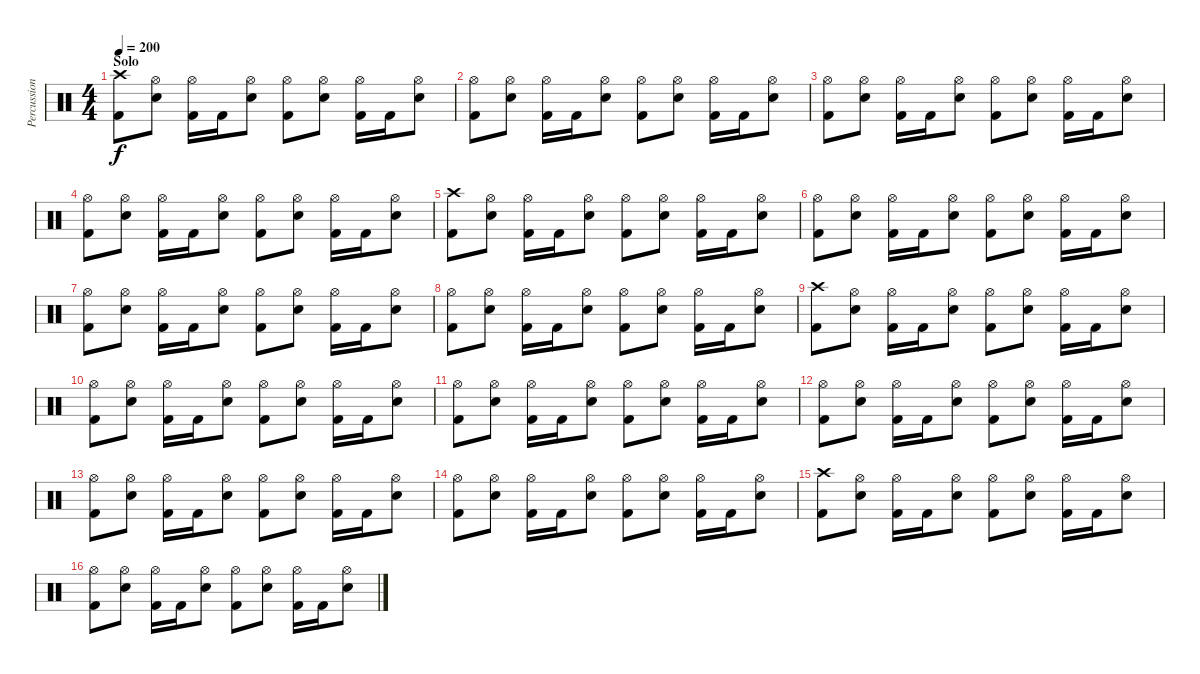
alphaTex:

\track ("Percussion" "Percussion") {instrument percussion}
\staff {score}
\articulation defaults
\ts (4 4)
\section ("" "Solo")
\tempo 200
\clef neutral
\ks c
("Crash high (hit)" "Kick (hit) 2").8{dy f} ("Hi-Hat (open)" "Electric Snare (hit)").8 ("Hi-Hat (open)" "Kick (hit) 2").16 "Kick (hit) 2".16 ("Hi-Hat (open)" "Electric Snare (hit)").8 ("Hi-Hat (open)" "Kick (hit) 2").8 ("Hi-Hat (open)" "Electric Snare (hit)").8 ("Hi-Hat (open)" "Kick (hit) 2").16 "Kick (hit) 2".16 ("Hi-Hat (open)" "Electric Snare (hit)").8 |
("Hi-Hat (open)" "Kick (hit) 2").8 ("Hi-Hat (open)" "Electric Snare (hit)").8 ("Hi-Hat (open)" "Kick (hit) 2").16 "Kick (hit) 2".16 ("Hi-Hat (open)" "Electric Snare (hit)").8 ("Hi-Hat (open)" "Kick (hit) 2").8 ("Hi-Hat (open)" "Electric Snare (hit)").8 ("Hi-Hat (open)" "Kick (hit) 2").16 "Kick (hit) 2".16 ("Hi-Hat (open)" "Electric Snare (hit)").8 |
("Hi-Hat (open)" "Kick (hit) 2").8 ("Hi-Hat (open)" "Electric Snare (hit)").8 ("Hi-Hat (open)" "Kick (hit) 2").16 "Kick (hit) 2".16 ("Hi-Hat (open)" "Electric Snare (hit)").8 ("Hi-Hat (open)" "Kick (hit) 2").8 ("Hi-Hat (open)" "Electric Snare (hit)").8 ("Hi-Hat (open)" "Kick (hit) 2").16 "Kick (hit) 2".16 ("Hi-Hat (open)" "Electric Snare (hit)").8 |
("Hi-Hat (open)" "Kick (hit) 2").8 ("Hi-Hat (open)" "Electric Snare (hit)").8 ("Hi-Hat (open)" "Kick (hit) 2").16 "Kick (hit) 2".16 ("Hi-Hat (open)" "Electric Snare (hit)").8 ("Hi-Hat (open)" "Kick (hit) 2").8 ("Hi-Hat (open)" "Electric Snare (hit)").8 ("Hi-Hat (open)" "Kick (hit) 2").16 "Kick (hit) 2".16 ("Hi-Hat (open)" "Electric Snare (hit)").8 |
("Crash high (hit)" "Kick (hit) 2").8 ("Hi-Hat (open)" "Electric Snare (hit)").8 ("Hi-Hat (open)" "Kick (hit) 2").16 "Kick (hit) 2".16 ("Hi-Hat (open)" "Electric Snare (hit)").8 ("Hi-Hat (open)" "Kick (hit) 2").8 ("Hi-Hat (open)" "Electric Snare (hit)").8 ("Hi-Hat (open)" "Kick (hit) 2").16 "Kick (hit) 2".16 ("Hi-Hat (open)" "Electric Snare (hit)").8 |
("Hi-Hat (open)" "Kick (hit) 2").8 ("Hi-Hat (open)" "Electric Snare (hit)").8 ("Hi-Hat (open)" "Kick (hit) 2").16 "Kick (hit) 2".16 ("Hi-Hat (open)" "Electric Snare (hit)").8 ("Hi-Hat (open)" "Kick (hit) 2").8 ("Hi-Hat (open)" "Electric Snare (hit)").8 ("Hi-Hat (open)" "Kick (hit) 2").16 "Kick (hit) 2".16 ("Hi-Hat (open)" "Electric Snare (hit)").8 |
("Hi-Hat (open)" "Kick (hit) 2").8 ("Hi-Hat (open)" "Electric Snare (hit)").8 ("Hi-Hat (open)" "Kick (hit) 2").16 "Kick (hit) 2".16 ("Hi-Hat (open)" "Electric Snare (hit)").8 ("Hi-Hat (open)" "Kick (hit) 2").8 ("Hi-Hat (open)" "Electric Snare (hit)").8 ("Hi-Hat (open)" "Kick (hit) 2").16 "Kick (hit) 2".16 ("Hi-Hat (open)" "Electric Snare (hit)").8 |
("Hi-Hat (open)" "Kick (hit) 2").8 ("Hi-Hat (open)" "Electric Snare (hit)").8 ("Hi-Hat (open)" "Kick (hit) 2").16 "Kick (hit) 2".16 ("Hi-Hat (open)" "Electric Snare (hit)").8 ("Hi-Hat (open)" "Kick (hit) 2").8 ("Hi-Hat (open)" "Electric Snare (hit)").8 ("Hi-Hat (open)" "Kick (hit) 2").16 "Kick (hit) 2".16 ("Hi-Hat (open)" "Electric Snare (hit)").8 |
("Crash high (hit)" "Kick (hit) 2").8 ("Hi-Hat (open)" "Electric Snare (hit)").8 ("Hi-Hat (open)" "Kick (hit) 2").16 "Kick (hit) 2".16 ("Hi-Hat (open)" "Electric Snare (hit)").8 ("Hi-Hat (open)" "Kick (hit) 2").8 ("Hi-Hat (open)" "Electric Snare (hit)").8 ("Hi-Hat (open)" "Kick (hit) 2").16 "Kick (hit) 2".16 ("Hi-Hat (open)" "Electric Snare (hit)").8 |
("Hi-Hat (open)" "Kick (hit) 2").8 ("Hi-Hat (open)" "Electric Snare (hit)").8 ("Hi-Hat (open)" "Kick (hit) 2").16 "Kick (hit) 2".16 ("Hi-Hat (open)" "Electric Snare (hit)").8 ("Hi-Hat (open)" "Kick (hit) 2").8 ("Hi-Hat (open)" "Electric Snare (hit)").8 ("Hi-Hat (open)" "Kick (hit) 2").16 "Kick (hit) 2".16 ("Hi-Hat (open)" "Electric Snare (hit)").8 |
("Hi-Hat (open)" "Kick (hit) 2").8 ("Hi-Hat (open)" "Electric Snare (hit)").8 ("Hi-Hat (open)" "Kick (hit) 2").16 "Kick (hit) 2".16 ("Hi-Hat (open)" "Electric Snare (hit)").8 ("Hi-Hat (open)" "Kick (hit) 2").8 ("Hi-Hat (open)" "Electric Snare (hit)").8 ("Hi-Hat (open)" "Kick (hit) 2").16 "Kick (hit) 2".16 ("Hi-Hat (open)" "Electric Snare (hit)").8 |
("Hi-Hat (open)" "Kick (hit) 2").8 ("Hi-Hat (open)" "Electric Snare (hit)").8 ("Hi-Hat (open)" "Kick (hit) 2").16 "Kick (hit) 2".16 ("Hi-Hat (open)" "Electric Snare (hit)").8 ("Hi-Hat (open)" "Kick (hit) 2").8 ("Hi-Hat (open)" "Electric Snare (hit)").8 ("Hi-Hat (open)" "Kick (hit) 2").16 "Kick (hit) 2".16 ("Hi-Hat (open)" "Electric Snare (hit)").8 |
("Hi-Hat (open)" "Kick (hit) 2").8 ("Hi-Hat (open)" "Electric Snare (hit)").8 ("Hi-Hat (open)" "Kick (hit) 2").16 "Kick (hit) 2".16 ("Hi-Hat (open)" "Electric Snare (hit)").8 ("Hi-Hat (open)" "Kick (hit) 2").8 ("Hi-Hat (open)" "Electric Snare (hit)").8 ("Hi-Hat (open)" "Kick (hit) 2").16 "Kick (hit) 2".16 ("Hi-Hat (open)" "Electric Snare (hit)").8 |
("Hi-Hat (open)" "Kick (hit) 2").8 ("Hi-Hat (open)" "Electric Snare (hit)").8 ("Hi-Hat (open)" "Kick (hit) 2").16 "Kick (hit) 2".16 ("Hi-Hat (open)" "Electric Snare (hit)").8 ("Hi-Hat (open)" "Kick (hit) 2").8 ("Hi-Hat (open)" "Electric Snare (hit)").8 ("Hi-Hat (open)" "Kick (hit) 2").16 "Kick (hit) 2".16 ("Hi-Hat (open)" "Electric Snare (hit)").8 |
("Crash high (hit)" "Kick (hit) 2").8 ("Hi-Hat (open)" "Electric Snare (hit)").8 ("Hi-Hat (open)" "Kick (hit) 2").16 "Kick (hit) 2".16 ("Hi-Hat (open)" "Electric Snare (hit)").8 ("Hi-Hat (open)" "Kick (hit) 2").8 ("Hi-Hat (open)" "Electric Snare (hit)").8 ("Hi-Hat (open)" "Kick (hit) 2").16 "Kick (hit) 2".16 ("Hi-Hat (open)" "Electric Snare (hit)").8 |
("Hi-Hat (open)" "Kick (hit) 2").8 ("Hi-Hat (open)" "Electric Snare (hit)").8 ("Hi-Hat (open)" "Kick (hit) 2").16 "Kick (hit) 2".16 ("Hi-Hat (open)" "Electric Snare (hit)").8 ("Hi-Hat (open)" "Kick (hit) 2").8 ("Hi-Hat (open)" "Electric Snare (hit)").8 ("Hi-Hat (open)" "Kick (hit) 2").16 "Kick (hit) 2".16 ("Hi-Hat (open)" "Electric Snare (hit)").8
